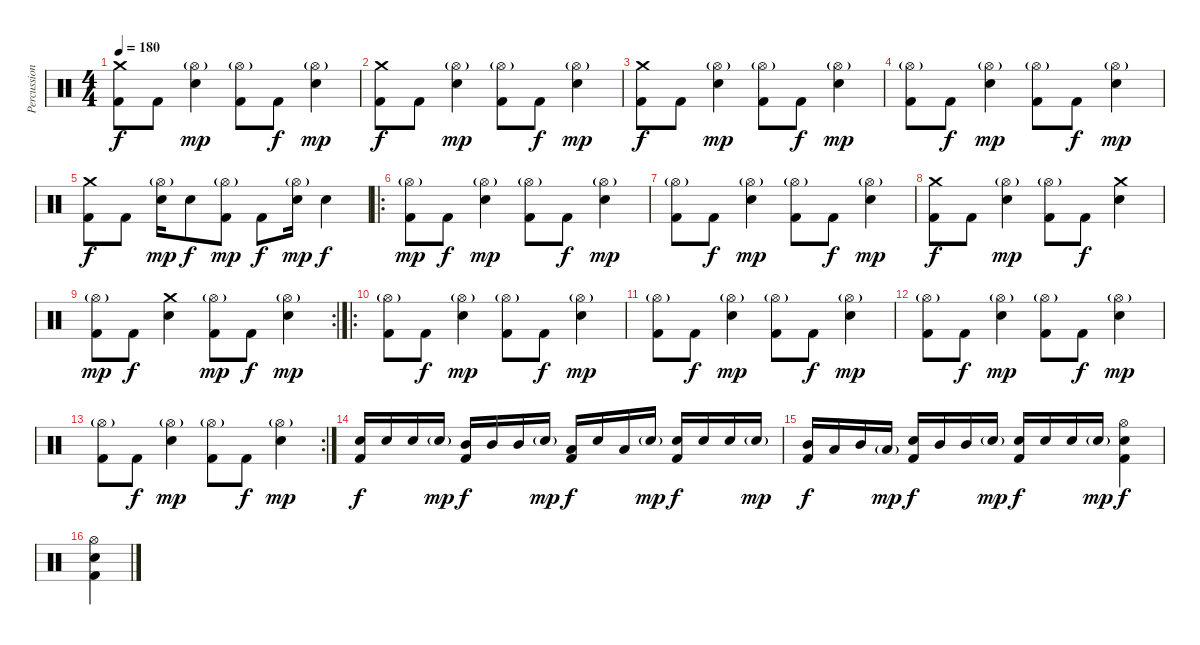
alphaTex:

\track ("Percussions" "Percussion") {instrument percussion}
\staff {score}
\articulation defaults
\ts (4 4)
\tempo 180
\clef neutral
\ks c
("Crash medium (hit)" "Kick (hit) 2").8{dy f} "Kick (hit) 2".8 ("Snare (hit) 2" "Hi-Hat (open)"{g}).4{dy mp} ("Hi-Hat (open)"{g} "Kick (hit) 2").8 "Kick (hit) 2".8{dy f} ("Snare (hit) 2" "Hi-Hat (open)"{g}).4{dy mp} |
("Crash medium (hit)" "Kick (hit) 2").8{dy f} "Kick (hit) 2".8 ("Snare (hit) 2" "Hi-Hat (open)"{g}).4{dy mp} ("Hi-Hat (open)"{g} "Kick (hit) 2").8 "Kick (hit) 2".8{dy f} ("Snare (hit) 2" "Hi-Hat (open)"{g}).4{dy mp} |
("Crash medium (hit)" "Kick (hit) 2").8{dy f} "Kick (hit) 2".8 ("Snare (hit) 2" "Hi-Hat (open)"{g}).4{dy mp} ("Hi-Hat (open)"{g} "Kick (hit) 2").8 "Kick (hit) 2".8{dy f} ("Snare (hit) 2" "Hi-Hat (open)"{g}).4{dy mp} |
("Hi-Hat (open)"{g} "Kick (hit) 2").8 "Kick (hit) 2".8{dy f} ("Snare (hit) 2" "Hi-Hat (open)"{g}).4{dy mp} ("Hi-Hat (open)"{g} "Kick (hit) 2").8 "Kick (hit) 2".8{dy f} ("Snare (hit) 2" "Hi-Hat (open)"{g}).4{dy mp} |
("Crash medium (hit)" "Kick (hit) 2").8{dy f} "Kick (hit) 2".8 ("Snare (hit) 2" "Hi-Hat (open)"{g}).16{dy mp} "Snare (hit) 2".8{dy f} ("Hi-Hat (open)"{g} "Kick (hit) 2").8{dy mp} "Kick (hit) 2".8{dy f} ("Snare (hit) 2" "Hi-Hat (open)"{g}).16{dy mp} "Snare (hit) 2".4{dy f} |
\ro
("Hi-Hat (open)"{g} "Kick (hit) 2").8{dy mp} "Kick (hit) 2".8{dy f} ("Snare (hit) 2" "Hi-Hat (open)"{g}).4{dy mp} ("Hi-Hat (open)"{g} "Kick (hit) 2").8 "Kick (hit) 2".8{dy f} ("Snare (hit) 2" "Hi-Hat (open)"{g}).4{dy mp} |
("Hi-Hat (open)"{g} "Kick (hit) 2").8 "Kick (hit) 2".8{dy f} ("Snare (hit) 2" "Hi-Hat (open)"{g}).4{dy mp} ("Hi-Hat (open)"{g} "Kick (hit) 2").8 "Kick (hit) 2".8{dy f} ("Snare (hit) 2" "Hi-Hat (open)"{g}).4{dy mp} |
("Crash medium (hit)" "Kick (hit) 2").8{dy f} "Kick (hit) 2".8 ("Snare (hit) 2" "Hi-Hat (open)"{g}).4{dy mp} ("Hi-Hat (open)"{g} "Kick (hit) 2").8 "Kick (hit) 2".8{dy f} ("Crash medium (hit)" "Snare (hit) 2").4 |
\rc 2
("Hi-Hat (open)"{g} "Kick (hit) 2").8{dy mp} "Kick (hit) 2".8{dy f} ("Snare (hit) 2" "Crash medium (hit)").4 ("Hi-Hat (open)"{g} "Kick (hit) 2").8{dy mp} "Kick (hit) 2".8{dy f} ("Snare (hit) 2" "Hi-Hat (open)"{g}).4{dy mp} |
\ro
("Hi-Hat (open)"{g} "Kick (hit) 2").8 "Kick (hit) 2".8{dy f} ("Snare (hit) 2" "Hi-Hat (open)"{g}).4{dy mp} ("Hi-Hat (open)"{g} "Kick (hit) 2").8 "Kick (hit) 2".8{dy f} ("Snare (hit) 2" "Hi-Hat (open)"{g}).4{dy mp} |
("Hi-Hat (open)"{g} "Kick (hit) 2").8 "Kick (hit) 2".8{dy f} ("Snare (hit) 2" "Hi-Hat (open)"{g}).4{dy mp} ("Hi-Hat (open)"{g} "Kick (hit) 2").8 "Kick (hit) 2".8{dy f} ("Snare (hit) 2" "Hi-Hat (open)"{g}).4{dy mp} |
("Hi-Hat (open)"{g} "Kick (hit) 2").8 "Kick (hit) 2".8{dy f} ("Snare (hit) 2" "Hi-Hat (open)"{g}).4{dy mp} ("Hi-Hat (open)"{g} "Kick (hit) 2").8 "Kick (hit) 2".8{dy f} ("Snare (hit) 2" "Hi-Hat (open)"{g}).4{dy mp} |
\rc 2
("Hi-Hat (open)"{g} "Kick (hit) 2").8 "Kick (hit) 2".8{dy f} ("Snare (hit) 2" "Hi-Hat (open)"{g}).4{dy mp} ("Hi-Hat (open)"{g} "Kick (hit) 2").8 "Kick (hit) 2".8{dy f} ("Snare (hit) 2" "Hi-Hat (open)"{g}).4{dy mp} |
("Snare (hit) 2" "Kick (hit) 2").16{dy f} "Snare (hit) 2".16 "Snare (hit) 2".16 "Snare (hit) 2"{g}.16{dy mp} ("Mid Tom (hit)" "Kick (hit) 2").16{dy f} "Mid Tom (hit)".16 "Mid Tom (hit)".16 "Snare (hit) 2"{g}.16{dy mp} ("Low Tom (hit)" "Kick (hit) 2").16{dy f} "Snare (hit) 2".16 "Low Tom (hit)".16 "Snare (hit) 2"{g}.16{dy mp} ("Snare (hit) 2" "Kick (hit) 2").16{dy f} "Snare (hit) 2".16 "Snare (hit) 2".16 "Snare (hit) 2"{g}.16{dy mp} |
("Mid Tom (hit)" "Kick (hit) 2").16{dy f} "Low Tom (hit)".16 "Mid Tom (hit)".16 "Low Tom (hit)"{g}.16{dy mp} ("Snare (hit) 2" "Kick (hit) 2").16{dy f} "Mid Tom (hit)".16 "Mid Tom (hit)".16 "Snare (hit) 2"{g}.16{dy mp} ("Snare (hit) 2" "Kick (hit) 2").16{dy f} "Snare (hit) 2".16 "Snare (hit) 2".16 "Snare (hit) 2"{g}.16{dy mp} ("Snare (hit) 2" "Hi-Hat (open)" "Kick (hit) 2").4{dy f} |
("Snare (hit) 2" "Hi-Hat (open)" "Kick (hit) 2").4
